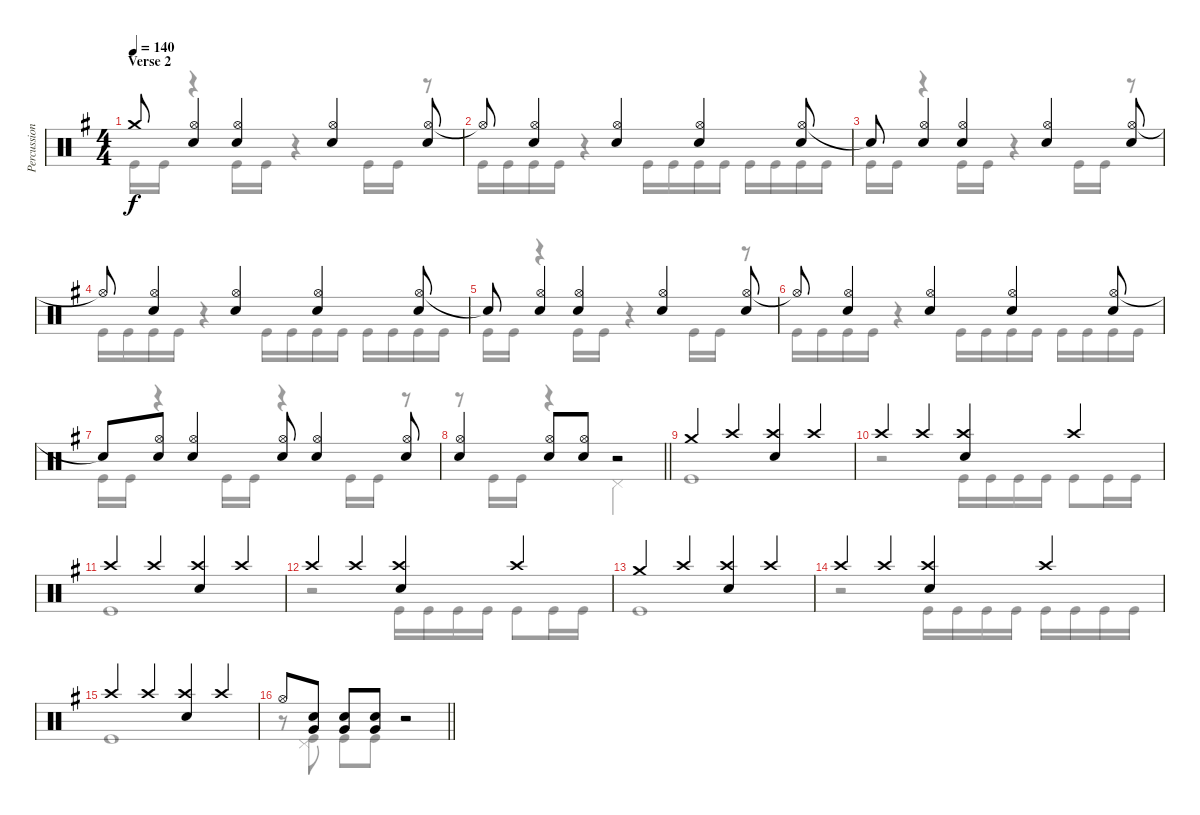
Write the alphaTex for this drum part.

\track ("Percussion" "Percussion") {instrument percussion}
\staff {score}
\articulation defaults
\voice
\ts (4 4)
\section ("" "Verse 2")
\tempo 140
\clef neutral
\ks eminor "Crash medium (hit)".8{dy f}
("Hi-Hat (open)" "Electric Snare (hit)").4 ("Hi-Hat (open)" "Electric Snare (hit)").4 ("Hi-Hat (open)" "Electric Snare (hit)").4 ("Hi-Hat (open)" "Electric Snare (hit)").8 |
"Hi-Hat (open)"{t}.8 ("Hi-Hat (open)" "Electric Snare (hit)").4 ("Hi-Hat (open)" "Electric Snare (hit)").4 ("Hi-Hat (open)" "Electric Snare (hit)").4 ("Hi-Hat (open)" "Electric Snare (hit)").8 |
"Snare (hit)"{t}.8 ("Hi-Hat (open)" "Electric Snare (hit)").4 ("Hi-Hat (open)" "Electric Snare (hit)").4 ("Hi-Hat (open)" "Electric Snare (hit)").4 ("Hi-Hat (open)" "Electric Snare (hit)").8 |
"Hi-Hat (open)"{t}.8 ("Hi-Hat (open)" "Electric Snare (hit)").4 ("Hi-Hat (open)" "Electric Snare (hit)").4 ("Hi-Hat (open)" "Electric Snare (hit)").4 ("Hi-Hat (open)" "Electric Snare (hit)").8 |
"Snare (hit)"{t}.8 ("Hi-Hat (open)" "Electric Snare (hit)").4 ("Hi-Hat (open)" "Electric Snare (hit)").4 ("Hi-Hat (open)" "Electric Snare (hit)").4 ("Hi-Hat (open)" "Electric Snare (hit)").8 |
"Hi-Hat (open)"{t}.8 ("Hi-Hat (open)" "Electric Snare (hit)").4 ("Hi-Hat (open)" "Electric Snare (hit)").4 ("Hi-Hat (open)" "Electric Snare (hit)").4 ("Hi-Hat (open)" "Electric Snare (hit)").8 |
"Snare (hit)"{t}.8 ("Hi-Hat (open)" "Electric Snare (hit)").8 ("Hi-Hat (open)" "Electric Snare (hit)").4 ("Hi-Hat (open)" "Electric Snare (hit)").8 ("Hi-Hat (open)" "Electric Snare (hit)").4 ("Hi-Hat (open)" "Electric Snare (hit)").8 |
\barLineRight lightlight
("Hi-Hat (open)" "Electric Snare (hit)").4 ("Hi-Hat (open)" "Electric Snare (hit)").8 ("Hi-Hat (open)" "Electric Snare (hit)").8 r.2 |
\section ("" "")
"Crash medium (hit)".4 "Crash high (hit)".4 ("Crash high (hit)" "Electric Snare (hit)").4 "Crash high (hit)".4 |
"Crash high (hit)".4 "Crash high (hit)".4 ("Crash high (hit)" "Electric Snare (hit)").4 "Crash high (hit)".4 |
"Crash high (hit)".4 "Crash high (hit)".4 ("Crash high (hit)" "Electric Snare (hit)").4 "Crash high (hit)".4 |
"Crash high (hit)".4 "Crash high (hit)".4 ("Crash high (hit)" "Electric Snare (hit)").4 "Crash high (hit)".4 |
"Crash medium (hit)".4 "Crash high (hit)".4 ("Crash high (hit)" "Electric Snare (hit)").4 "Crash high (hit)".4 |
"Crash high (hit)".4 "Crash high (hit)".4 ("Crash high (hit)" "Electric Snare (hit)").4 "Crash high (hit)".4 |
"Crash high (hit)".4 "Crash high (hit)".4 ("Crash high (hit)" "Electric Snare (hit)").4 "Crash high (hit)".4 |
\barLineRight lightlight "Hi-Hat (open)".8
("Very Low Tom (hit)" "Electric Snare (hit)").8 ("Very Low Tom (hit)" "Electric Snare (hit)").8 ("Very Low Tom (hit)" "Electric Snare (hit)").8 r.2
\voice
\clef neutral
\ottava regular
\simile none
\ks eminor "Kick (hit)".16{dy f} "Kick (hit)".16
r.4 "Kick (hit)".16 "Kick (hit)".16 r.4 "Kick (hit)".16 "Kick (hit)".16 r.8 |
"Kick (hit)".16 "Kick (hit)".16 "Kick (hit)".16 "Kick (hit)".16 r.4 "Kick (hit)".16 "Kick (hit)".16 "Kick (hit)".16 "Kick (hit)".16 "Kick (hit)".16 "Kick (hit)".16 "Kick (hit)".16 "Kick (hit)".16 |
"Kick (hit)".16 "Kick (hit)".16 r.4 "Kick (hit)".16 "Kick (hit)".16 r.4 "Kick (hit)".16 "Kick (hit)".16 r.8 |
"Kick (hit)".16 "Kick (hit)".16 "Kick (hit)".16 "Kick (hit)".16 r.4 "Kick (hit)".16 "Kick (hit)".16 "Kick (hit)".16 "Kick (hit)".16 "Kick (hit)".16 "Kick (hit)".16 "Kick (hit)".16 "Kick (hit)".16 |
"Kick (hit)".16 "Kick (hit)".16 r.4 "Kick (hit)".16 "Kick (hit)".16 r.4 "Kick (hit)".16 "Kick (hit)".16 r.8 |
"Kick (hit)".16 "Kick (hit)".16 "Kick (hit)".16 "Kick (hit)".16 r.4 "Kick (hit)".16 "Kick (hit)".16 "Kick (hit)".16 "Kick (hit)".16 "Kick (hit)".16 "Kick (hit)".16 "Kick (hit)".16 "Kick (hit)".16 |
"Kick (hit)".16 "Kick (hit)".16 r.4 "Kick (hit)".16 "Kick (hit)".16 r.4 "Kick (hit)".16 "Kick (hit)".16 r.8 |
\barLineRight lightlight
r.8 "Kick (hit)".16 "Kick (hit)".16 r.4 "Pedal Hi-Hat (hit)".2 |
"Kick (hit)".1 |
r.2 "Kick (hit)".16 "Kick (hit)".16 "Kick (hit)".16 "Kick (hit)".16 "Kick (hit)".8 "Kick (hit)".16 "Kick (hit)".16 |
"Kick (hit)".1 |
r.2 "Kick (hit)".16 "Kick (hit)".16 "Kick (hit)".16 "Kick (hit)".16 "Kick (hit)".8 "Kick (hit)".16 "Kick (hit)".16 |
"Kick (hit)".1 |
r.2 "Kick (hit)".16 "Kick (hit)".16 "Kick (hit)".16 "Kick (hit)".16 "Kick (hit)".16 "Kick (hit)".16 "Kick (hit)".16 "Kick (hit)".16 |
"Kick (hit)".1 |
\barLineRight lightlight
r.8 ("Pedal Hi-Hat (hit)" "Kick (hit)").8 "Kick (hit)".8 "Kick (hit)".8 r.2
